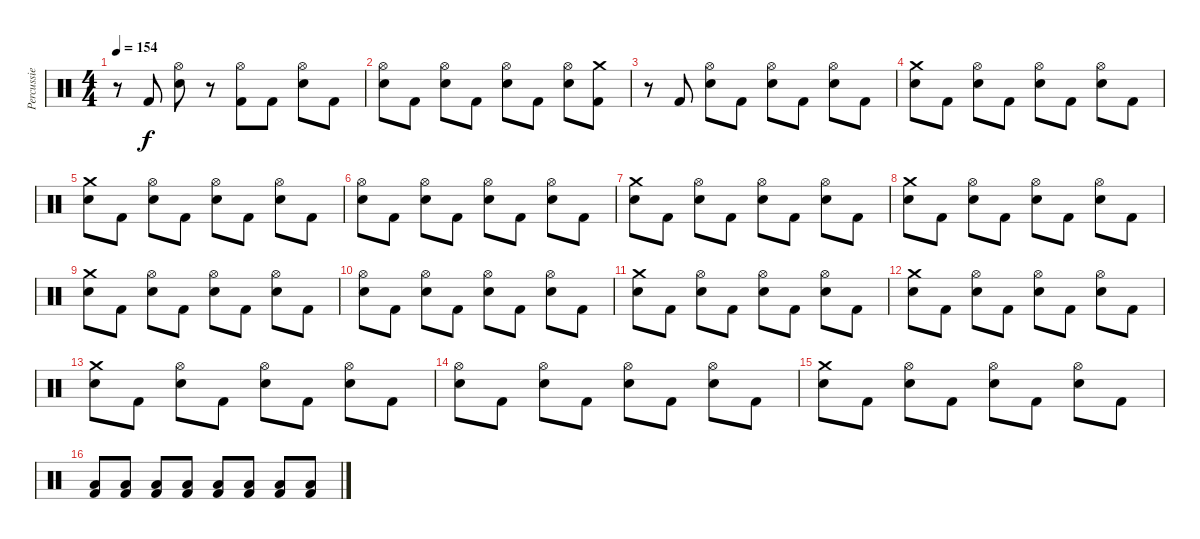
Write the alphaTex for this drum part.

\track ("Percussie" "Percussie") {instrument percussion}
\staff {score}
\articulation defaults
\ts (4 4)
\tempo 154
\clef neutral
\ks c
r.8{dy f} "Kick (hit) 2".8 ("Hi-Hat (open)" "Snare (hit) 2").8 r.8 ("Hi-Hat (open)" "Kick (hit) 2").8 "Kick (hit) 2".8 ("Hi-Hat (open)" "Snare (hit) 2").8 "Kick (hit) 2".8 |
("Hi-Hat (open)" "Snare (hit) 2").8 "Kick (hit) 2".8 ("Hi-Hat (open)" "Snare (hit) 2").8 "Kick (hit) 2".8 ("Hi-Hat (open)" "Snare (hit) 2").8 "Kick (hit) 2".8 ("Hi-Hat (open)" "Snare (hit) 2").8 ("Crash medium (hit)" "Kick (hit) 2").8 |
r.8 "Kick (hit) 2".8 ("Hi-Hat (open)" "Snare (hit) 2").8 "Kick (hit) 2".8 ("Hi-Hat (open)" "Snare (hit) 2").8 "Kick (hit) 2".8 ("Hi-Hat (open)" "Snare (hit) 2").8 "Kick (hit) 2".8 |
("Crash medium (hit)" "Snare (hit) 2").8 "Kick (hit) 2".8 ("Hi-Hat (open)" "Snare (hit) 2").8 "Kick (hit) 2".8 ("Hi-Hat (open)" "Snare (hit) 2").8 "Kick (hit) 2".8 ("Hi-Hat (open)" "Snare (hit) 2").8 "Kick (hit) 2".8 |
("Crash medium (hit)" "Snare (hit) 2").8 "Kick (hit) 2".8 ("Hi-Hat (open)" "Snare (hit) 2").8 "Kick (hit) 2".8 ("Hi-Hat (open)" "Snare (hit) 2").8 "Kick (hit) 2".8 ("Hi-Hat (open)" "Snare (hit) 2").8 "Kick (hit) 2".8 |
("Hi-Hat (open)" "Snare (hit) 2").8 "Kick (hit) 2".8 ("Hi-Hat (open)" "Snare (hit) 2").8 "Kick (hit) 2".8 ("Hi-Hat (open)" "Snare (hit) 2").8 "Kick (hit) 2".8 ("Hi-Hat (open)" "Snare (hit) 2").8 "Kick (hit) 2".8 |
("Crash medium (hit)" "Snare (hit) 2").8 "Kick (hit) 2".8 ("Hi-Hat (open)" "Snare (hit) 2").8 "Kick (hit) 2".8 ("Hi-Hat (open)" "Snare (hit) 2").8 "Kick (hit) 2".8 ("Hi-Hat (open)" "Snare (hit) 2").8 "Kick (hit) 2".8 |
("Crash medium (hit)" "Snare (hit) 2").8 "Kick (hit) 2".8 ("Hi-Hat (open)" "Snare (hit) 2").8 "Kick (hit) 2".8 ("Hi-Hat (open)" "Snare (hit) 2").8 "Kick (hit) 2".8 ("Hi-Hat (open)" "Snare (hit) 2").8 "Kick (hit) 2".8 |
("Crash medium (hit)" "Snare (hit) 2").8 "Kick (hit) 2".8 ("Hi-Hat (open)" "Snare (hit) 2").8 "Kick (hit) 2".8 ("Hi-Hat (open)" "Snare (hit) 2").8 "Kick (hit) 2".8 ("Hi-Hat (open)" "Snare (hit) 2").8 "Kick (hit) 2".8 |
("Hi-Hat (open)" "Snare (hit) 2").8 "Kick (hit) 2".8 ("Hi-Hat (open)" "Snare (hit) 2").8 "Kick (hit) 2".8 ("Hi-Hat (open)" "Snare (hit) 2").8 "Kick (hit) 2".8 ("Hi-Hat (open)" "Snare (hit) 2").8 "Kick (hit) 2".8 |
("Crash medium (hit)" "Snare (hit) 2").8 "Kick (hit) 2".8 ("Hi-Hat (open)" "Snare (hit) 2").8 "Kick (hit) 2".8 ("Hi-Hat (open)" "Snare (hit) 2").8 "Kick (hit) 2".8 ("Hi-Hat (open)" "Snare (hit) 2").8 "Kick (hit) 2".8 |
("Crash medium (hit)" "Snare (hit) 2").8 "Kick (hit) 2".8 ("Hi-Hat (open)" "Snare (hit) 2").8 "Kick (hit) 2".8 ("Hi-Hat (open)" "Snare (hit) 2").8 "Kick (hit) 2".8 ("Hi-Hat (open)" "Snare (hit) 2").8 "Kick (hit) 2".8 |
("Crash medium (hit)" "Snare (hit) 2").8 "Kick (hit) 2".8 ("Hi-Hat (open)" "Snare (hit) 2").8 "Kick (hit) 2".8 ("Hi-Hat (open)" "Snare (hit) 2").8 "Kick (hit) 2".8 ("Hi-Hat (open)" "Snare (hit) 2").8 "Kick (hit) 2".8 |
("Hi-Hat (open)" "Snare (hit) 2").8 "Kick (hit) 2".8 ("Hi-Hat (open)" "Snare (hit) 2").8 "Kick (hit) 2".8 ("Hi-Hat (open)" "Snare (hit) 2").8 "Kick (hit) 2".8 ("Hi-Hat (open)" "Snare (hit) 2").8 "Kick (hit) 2".8 |
("Crash medium (hit)" "Snare (hit) 2").8 "Kick (hit) 2".8 ("Hi-Hat (open)" "Snare (hit) 2").8 "Kick (hit) 2".8 ("Hi-Hat (open)" "Snare (hit) 2").8 "Kick (hit) 2".8 ("Hi-Hat (open)" "Snare (hit) 2").8 "Kick (hit) 2".8 |
("Low Tom (hit)" "Kick (hit) 2").8 ("Low Tom (hit)" "Kick (hit) 2").8 ("Low Tom (hit)" "Kick (hit) 2").8 ("Low Tom (hit)" "Kick (hit) 2").8 ("Low Tom (hit)" "Kick (hit) 2").8 ("Low Tom (hit)" "Kick (hit) 2").8 ("Low Tom (hit)" "Kick (hit) 2").8 ("Low Tom (hit)" "Kick (hit) 2").8
